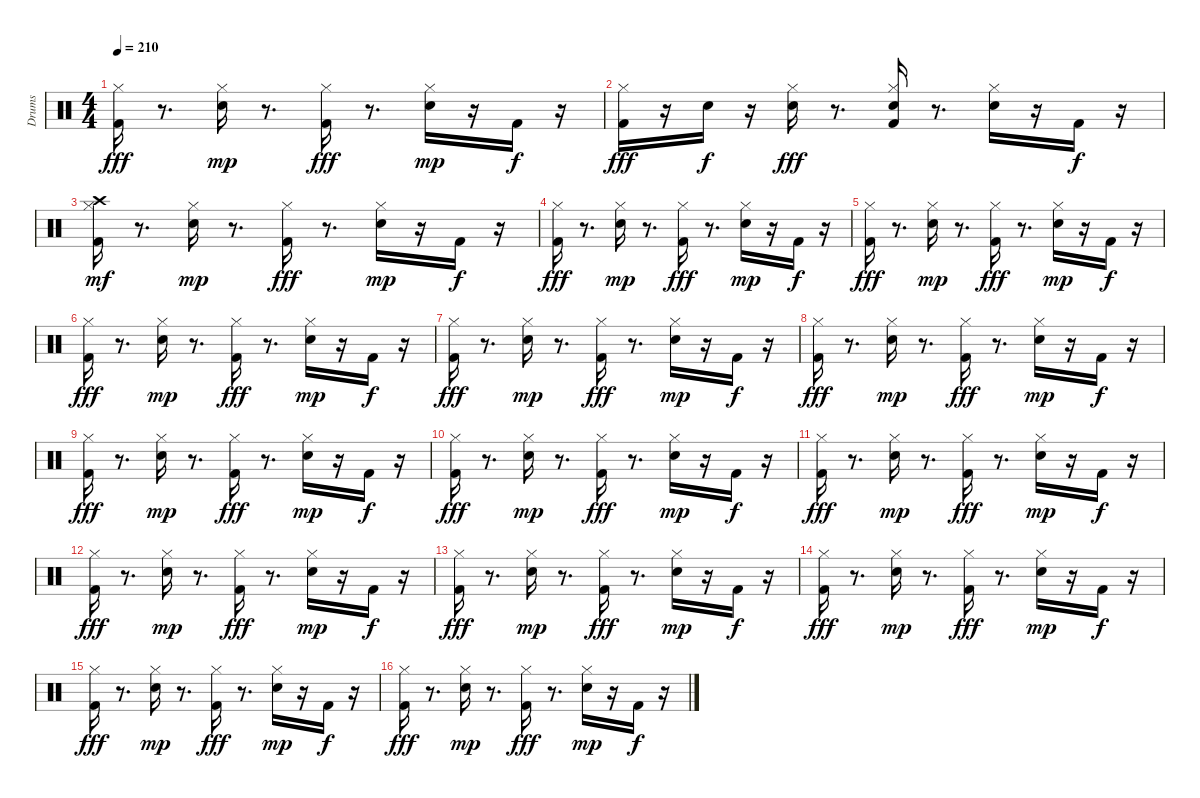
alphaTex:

\track ("Drums " "Drums ") {instrument percussion}
\staff {score}
\articulation defaults
\ts (4 4)
\tempo 210
\clef neutral
\ks c
("Kick (hit) 2" "Hi-Hat (closed)").16{dy fff} r.8{d} ("Snare (hit) 2" "Hi-Hat (closed)").16{dy mp} r.8{d} ("Kick (hit) 2" "Hi-Hat (closed)").16{dy fff} r.8{d} ("Snare (hit) 2" "Hi-Hat (closed)").16{dy mp} r.16 "Kick (hit) 2".16{dy f} r.16 |
("Kick (hit) 2" "Hi-Hat (closed)").16{dy fff} r.16 "Snare (hit) 2".16{dy f} r.16 ("Snare (hit) 2" "Hi-Hat (closed)").16{dy fff} r.8{d} ("Kick (hit) 2" "Snare (hit) 2" "Hi-Hat (closed)").16 r.8{d} ("Snare (hit) 2" "Hi-Hat (closed)").16 r.16 "Kick (hit) 2".16{dy f} r.16 |
("Kick (hit) 2" "Hi-Hat (closed)" "Crash high (hit)").16{dy mf} r.8{d} ("Snare (hit) 2" "Hi-Hat (closed)").16{dy mp} r.8{d} ("Kick (hit) 2" "Hi-Hat (closed)").16{dy fff} r.8{d} ("Snare (hit) 2" "Hi-Hat (closed)").16{dy mp} r.16 "Kick (hit) 2".16{dy f} r.16 |
("Kick (hit) 2" "Hi-Hat (closed)").16{dy fff} r.8{d} ("Snare (hit) 2" "Hi-Hat (closed)").16{dy mp} r.8{d} ("Kick (hit) 2" "Hi-Hat (closed)").16{dy fff} r.8{d} ("Snare (hit) 2" "Hi-Hat (closed)").16{dy mp} r.16 "Kick (hit) 2".16{dy f} r.16 |
("Kick (hit) 2" "Hi-Hat (closed)").16{dy fff} r.8{d} ("Snare (hit) 2" "Hi-Hat (closed)").16{dy mp} r.8{d} ("Kick (hit) 2" "Hi-Hat (closed)").16{dy fff} r.8{d} ("Snare (hit) 2" "Hi-Hat (closed)").16{dy mp} r.16 "Kick (hit) 2".16{dy f} r.16 |
("Kick (hit) 2" "Hi-Hat (closed)").16{dy fff} r.8{d} ("Snare (hit) 2" "Hi-Hat (closed)").16{dy mp} r.8{d} ("Kick (hit) 2" "Hi-Hat (closed)").16{dy fff} r.8{d} ("Snare (hit) 2" "Hi-Hat (closed)").16{dy mp} r.16 "Kick (hit) 2".16{dy f} r.16 |
("Kick (hit) 2" "Hi-Hat (closed)").16{dy fff} r.8{d} ("Snare (hit) 2" "Hi-Hat (closed)").16{dy mp} r.8{d} ("Kick (hit) 2" "Hi-Hat (closed)").16{dy fff} r.8{d} ("Snare (hit) 2" "Hi-Hat (closed)").16{dy mp} r.16 "Kick (hit) 2".16{dy f} r.16 |
("Kick (hit) 2" "Hi-Hat (closed)").16{dy fff} r.8{d} ("Snare (hit) 2" "Hi-Hat (closed)").16{dy mp} r.8{d} ("Kick (hit) 2" "Hi-Hat (closed)").16{dy fff} r.8{d} ("Snare (hit) 2" "Hi-Hat (closed)").16{dy mp} r.16 "Kick (hit) 2".16{dy f} r.16 |
("Kick (hit) 2" "Hi-Hat (closed)").16{dy fff} r.8{d} ("Snare (hit) 2" "Hi-Hat (closed)").16{dy mp} r.8{d} ("Kick (hit) 2" "Hi-Hat (closed)").16{dy fff} r.8{d} ("Snare (hit) 2" "Hi-Hat (closed)").16{dy mp} r.16 "Kick (hit) 2".16{dy f} r.16 |
("Kick (hit) 2" "Hi-Hat (closed)").16{dy fff} r.8{d} ("Snare (hit) 2" "Hi-Hat (closed)").16{dy mp} r.8{d} ("Kick (hit) 2" "Hi-Hat (closed)").16{dy fff} r.8{d} ("Snare (hit) 2" "Hi-Hat (closed)").16{dy mp} r.16 "Kick (hit) 2".16{dy f} r.16 |
("Kick (hit) 2" "Hi-Hat (closed)").16{dy fff} r.8{d} ("Snare (hit) 2" "Hi-Hat (closed)").16{dy mp} r.8{d} ("Kick (hit) 2" "Hi-Hat (closed)").16{dy fff} r.8{d} ("Snare (hit) 2" "Hi-Hat (closed)").16{dy mp} r.16 "Kick (hit) 2".16{dy f} r.16 |
("Kick (hit) 2" "Hi-Hat (closed)").16{dy fff} r.8{d} ("Snare (hit) 2" "Hi-Hat (closed)").16{dy mp} r.8{d} ("Kick (hit) 2" "Hi-Hat (closed)").16{dy fff} r.8{d} ("Snare (hit) 2" "Hi-Hat (closed)").16{dy mp} r.16 "Kick (hit) 2".16{dy f} r.16 |
("Kick (hit) 2" "Hi-Hat (closed)").16{dy fff} r.8{d} ("Snare (hit) 2" "Hi-Hat (closed)").16{dy mp} r.8{d} ("Kick (hit) 2" "Hi-Hat (closed)").16{dy fff} r.8{d} ("Snare (hit) 2" "Hi-Hat (closed)").16{dy mp} r.16 "Kick (hit) 2".16{dy f} r.16 |
("Kick (hit) 2" "Hi-Hat (closed)").16{dy fff} r.8{d} ("Snare (hit) 2" "Hi-Hat (closed)").16{dy mp} r.8{d} ("Kick (hit) 2" "Hi-Hat (closed)").16{dy fff} r.8{d} ("Snare (hit) 2" "Hi-Hat (closed)").16{dy mp} r.16 "Kick (hit) 2".16{dy f} r.16 |
("Kick (hit) 2" "Hi-Hat (closed)").16{dy fff} r.8{d} ("Snare (hit) 2" "Hi-Hat (closed)").16{dy mp} r.8{d} ("Kick (hit) 2" "Hi-Hat (closed)").16{dy fff} r.8{d} ("Snare (hit) 2" "Hi-Hat (closed)").16{dy mp} r.16 "Kick (hit) 2".16{dy f} r.16 |
("Kick (hit) 2" "Hi-Hat (closed)").16{dy fff} r.8{d} ("Snare (hit) 2" "Hi-Hat (closed)").16{dy mp} r.8{d} ("Kick (hit) 2" "Hi-Hat (closed)").16{dy fff} r.8{d} ("Snare (hit) 2" "Hi-Hat (closed)").16{dy mp} r.16 "Kick (hit) 2".16{dy f} r.16
